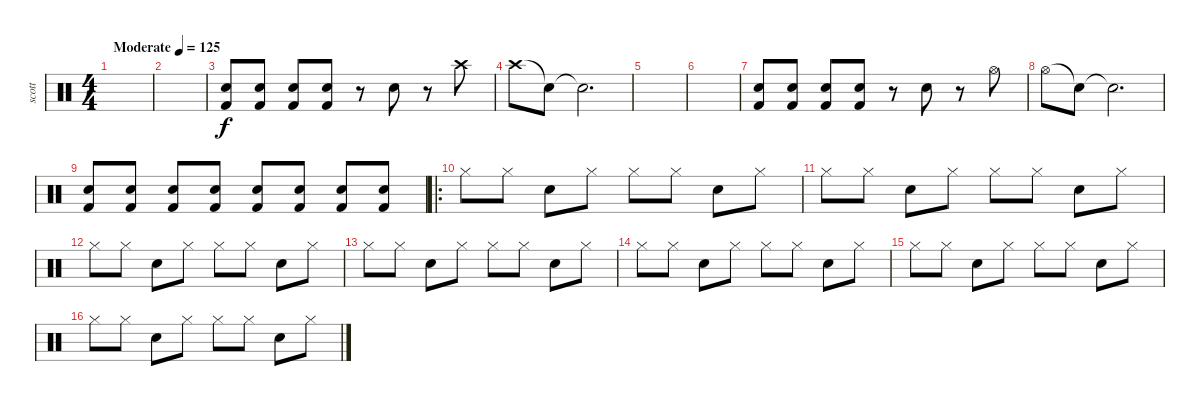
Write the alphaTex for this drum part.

\track ("scott" "scott") {instrument percussion}
\staff {score}
\articulation defaults
\ts (4 4)
\tempo (125 "Moderate")
\clef neutral
\ks c
|
|
("Kick (hit) 2" "Snare (hit) 2").8 ("Kick (hit) 2" "Snare (hit) 2").8 ("Kick (hit) 2" "Snare (hit) 2").8 ("Kick (hit) 2" "Snare (hit) 2").8 r.8 "Snare (hit) 2".8 r.8 "Crash high (hit)".8 |
"Crash high (hit)".8 "Snare (hit)"{t}.8 "Snare (hit)"{t}.2{d} |
|
|
("Kick (hit) 2" "Snare (hit) 2").8 ("Kick (hit) 2" "Snare (hit) 2").8 ("Kick (hit) 2" "Snare (hit) 2").8 ("Kick (hit) 2" "Snare (hit) 2").8 r.8 "Snare (hit) 2".8 r.8 "Hi-Hat (open)".8 |
"Hi-Hat (open)".8 "Snare (hit)"{t}.8 "Snare (hit)"{t}.2{d} |
("Kick (hit) 2" "Snare (hit) 2").8{volume 2} ("Kick (hit) 2" "Snare (hit) 2").8{volume 4} ("Kick (hit) 2" "Snare (hit) 2").8{volume 6} ("Kick (hit) 2" "Snare (hit) 2").8{volume 8} ("Kick (hit) 2" "Snare (hit) 2").8{volume 10} ("Kick (hit) 2" "Snare (hit) 2").8{volume 12} ("Kick (hit) 2" "Snare (hit) 2").8{volume 14} ("Kick (hit) 2" "Snare (hit) 2").8{volume 16} |
\ro "Hi-Hat (closed)".8 "Hi-Hat (closed)".8 "Snare (hit) 2".8 "Hi-Hat (closed)".8 "Hi-Hat (closed)".8 "Hi-Hat (closed)".8 "Snare (hit) 2".8 "Hi-Hat (closed)".8
|
"Hi-Hat (closed)".8 "Hi-Hat (closed)".8 "Snare (hit) 2".8 "Hi-Hat (closed)".8 "Hi-Hat (closed)".8 "Hi-Hat (closed)".8 "Snare (hit) 2".8 "Hi-Hat (closed)".8 |
"Hi-Hat (closed)".8 "Hi-Hat (closed)".8 "Snare (hit) 2".8 "Hi-Hat (closed)".8 "Hi-Hat (closed)".8 "Hi-Hat (closed)".8 "Snare (hit) 2".8 "Hi-Hat (closed)".8 |
"Hi-Hat (closed)".8 "Hi-Hat (closed)".8 "Snare (hit) 2".8 "Hi-Hat (closed)".8 "Hi-Hat (closed)".8 "Hi-Hat (closed)".8 "Snare (hit) 2".8 "Hi-Hat (closed)".8 |
"Hi-Hat (closed)".8 "Hi-Hat (closed)".8 "Snare (hit) 2".8 "Hi-Hat (closed)".8 "Hi-Hat (closed)".8 "Hi-Hat (closed)".8 "Snare (hit) 2".8 "Hi-Hat (closed)".8 |
"Hi-Hat (closed)".8 "Hi-Hat (closed)".8 "Snare (hit) 2".8 "Hi-Hat (closed)".8 "Hi-Hat (closed)".8 "Hi-Hat (closed)".8 "Snare (hit) 2".8 "Hi-Hat (closed)".8 |
"Hi-Hat (closed)".8 "Hi-Hat (closed)".8 "Snare (hit) 2".8 "Hi-Hat (closed)".8 "Hi-Hat (closed)".8 "Hi-Hat (closed)".8 "Snare (hit) 2".8 "Hi-Hat (closed)".8
